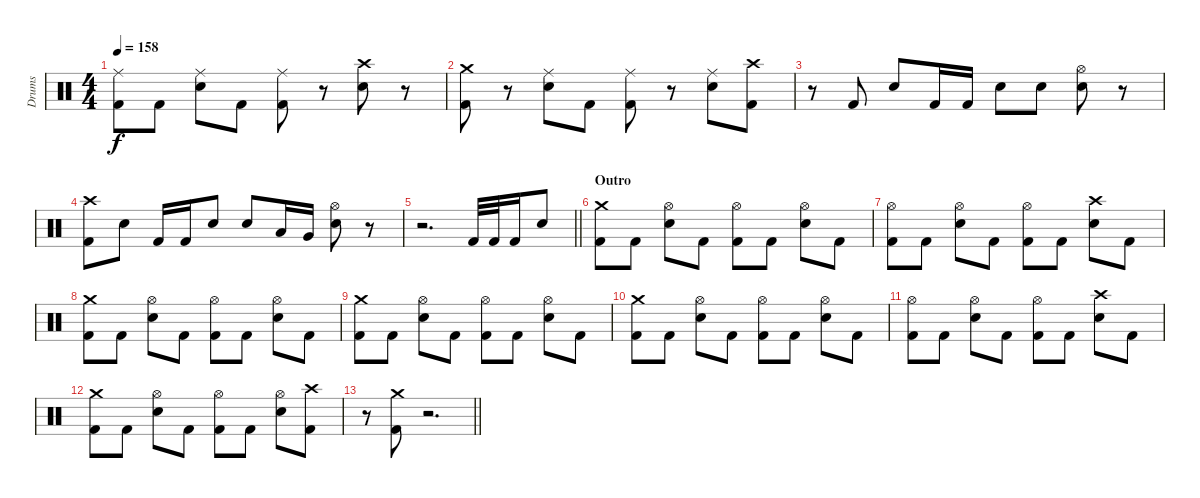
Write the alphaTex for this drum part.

\track ("Drums" "Drums") {instrument percussion}
\staff {score}
\articulation defaults
\ts (4 4)
\tempo 158
\clef neutral
\ks c
("Ride (middle)" "Kick (hit) 2").8{dy f} "Kick (hit) 2".8 ("Ride (middle)" "Electric Snare (hit)").8 "Kick (hit) 2".8 ("Ride (middle)" "Kick (hit) 2").8 r.8 ("Crash high (hit)" "Electric Snare (hit)").8 r.8 |
("Crash medium (hit)" "Kick (hit) 2").8 r.8 ("Ride (middle)" "Electric Snare (hit)").8 "Kick (hit) 2".8 ("Ride (middle)" "Kick (hit) 2").8 r.8 ("Ride (middle)" "Electric Snare (hit)").8 ("Crash high (hit)" "Kick (hit) 2").8 |
r.8 "Kick (hit) 2".8 "Electric Snare (hit)".8 "Kick (hit) 2".16 "Kick (hit) 2".16 "Electric Snare (hit)".8 "Electric Snare (hit)".8 ("Hi-Hat (open)" "Electric Snare (hit)").8 r.8 |
("Crash high (hit)" "Kick (hit) 2").8 "Electric Snare (hit)".8 "Kick (hit) 2".16 "Kick (hit) 2".16 "Electric Snare (hit)".8 "Electric Snare (hit)".8 "Low Tom (hit)".16 "Very Low Tom (hit)".16 ("Hi-Hat (open)" "Electric Snare (hit)").8 r.8 |
\barLineRight lightlight
r.2{d} "Kick (hit) 2".32 "Kick (hit) 2".32 "Kick (hit) 2".16 "Electric Snare (hit)".8 |
\section ("" "Outro")
("Crash medium (hit)" "Kick (hit) 2").8 "Kick (hit) 2".8 ("Hi-Hat (open)" "Electric Snare (hit)").8 "Kick (hit) 2".8 ("Hi-Hat (open)" "Kick (hit) 2").8 "Kick (hit) 2".8 ("Hi-Hat (open)" "Electric Snare (hit)").8 "Kick (hit) 2".8 |
("Hi-Hat (open)" "Kick (hit) 2").8 "Kick (hit) 2".8 ("Hi-Hat (open)" "Electric Snare (hit)").8 "Kick (hit) 2".8 ("Hi-Hat (open)" "Kick (hit) 2").8 "Kick (hit) 2".8 ("Crash high (hit)" "Electric Snare (hit)").8 "Kick (hit) 2".8 |
("Crash medium (hit)" "Kick (hit) 2").8 "Kick (hit) 2".8 ("Hi-Hat (open)" "Electric Snare (hit)").8 "Kick (hit) 2".8 ("Hi-Hat (open)" "Kick (hit) 2").8 "Kick (hit) 2".8 ("Hi-Hat (open)" "Electric Snare (hit)").8 "Kick (hit) 2".8 |
("Crash medium (hit)" "Kick (hit) 2").8 "Kick (hit) 2".8 ("Hi-Hat (open)" "Electric Snare (hit)").8 "Kick (hit) 2".8 ("Hi-Hat (open)" "Kick (hit) 2").8 "Kick (hit) 2".8 ("Hi-Hat (open)" "Electric Snare (hit)").8 "Kick (hit) 2".8 |
("Crash medium (hit)" "Kick (hit) 2").8 "Kick (hit) 2".8 ("Hi-Hat (open)" "Electric Snare (hit)").8 "Kick (hit) 2".8 ("Hi-Hat (open)" "Kick (hit) 2").8 "Kick (hit) 2".8 ("Hi-Hat (open)" "Electric Snare (hit)").8 "Kick (hit) 2".8 |
("Hi-Hat (open)" "Kick (hit) 2").8 "Kick (hit) 2".8 ("Hi-Hat (open)" "Electric Snare (hit)").8 "Kick (hit) 2".8 ("Hi-Hat (open)" "Kick (hit) 2").8 "Kick (hit) 2".8 ("Crash high (hit)" "Electric Snare (hit)").8 "Kick (hit) 2".8 |
("Crash medium (hit)" "Kick (hit) 2").8 "Kick (hit) 2".8 ("Hi-Hat (open)" "Electric Snare (hit)").8 "Kick (hit) 2".8 ("Hi-Hat (open)" "Kick (hit) 2").8 "Kick (hit) 2".8 ("Hi-Hat (open)" "Electric Snare (hit)").8 ("Crash high (hit)" "Kick (hit) 2").8 |
\barLineRight lightlight
r.8 ("Crash medium (hit)" "Kick (hit) 2").8 r.2{d}
